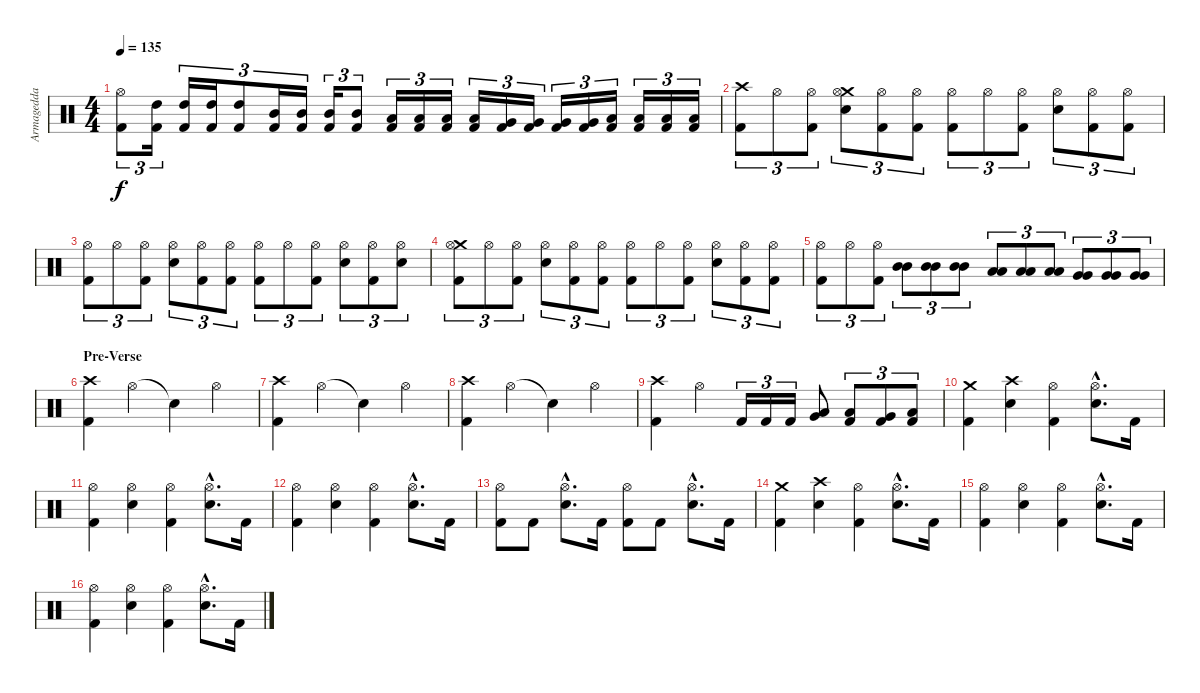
\track ("Armagedda" "Armagedda") {instrument percussion}
\staff {score}
\articulation defaults
\ts (4 4)
\tempo 135
\clef neutral
\ks c
("Hi-Hat (open)" "Kick (hit) 2").8{tu (3 2) dy f} ("High Tom (hit)" "Kick (hit) 2").16{tu (3 2)} ("High Tom (hit)" "Kick (hit) 2").16{tu (3 2)} ("High Tom (hit)" "Kick (hit) 2").16{tu (3 2)} ("High Tom (hit)" "Kick (hit) 2").8{tu (3 2)} ("Mid Tom (hit)" "Kick (hit) 2").16{tu (3 2)} ("Mid Tom (hit)" "Kick (hit) 2").16{tu (3 2)} ("Mid Tom (hit)" "Kick (hit) 2").16{tu (3 2)} ("Mid Tom (hit)" "Kick (hit) 2").8{tu (3 2)} ("Low Tom (hit)" "Kick (hit) 2").16{tu (3 2)} ("Low Tom (hit)" "Kick (hit) 2").16{tu (3 2)} ("Low Tom (hit)" "Kick (hit) 2").16{tu (3 2)} ("Low Tom (hit)" "Kick (hit) 2").16{tu (3 2)} ("Very Low Tom (hit)" "Kick (hit) 2").16{tu (3 2)} ("Very Low Tom (hit)" "Kick (hit) 2").16{tu (3 2)} ("Very Low Tom (hit)" "Kick (hit) 2").16{tu (3 2)} ("Very Low Tom (hit)" "Kick (hit) 2").16{tu (3 2)} ("Low Floor Tom (hit)" "Kick (hit) 2").16{tu (3 2)} ("Low Floor Tom (hit)" "Kick (hit) 2").16{tu (3 2)} ("Low Floor Tom (hit)" "Kick (hit) 2").16{tu (3 2)} ("Low Floor Tom (hit)" "Kick (hit) 2").16{tu (3 2)} |
("Crash high (hit)" "Kick (hit) 2").8{tu (3 2)} "Hi-Hat (open)".8{tu (3 2)} ("Hi-Hat (open)" "Kick (hit) 2").8{tu (3 2)} ("Crash medium (hit)" "Hi-Hat (open)" "Electric Snare (hit)").8{tu (3 2)} ("Hi-Hat (open)" "Kick (hit) 2").8{tu (3 2)} ("Hi-Hat (open)" "Kick (hit) 2").8{tu (3 2)} ("Hi-Hat (open)" "Kick (hit) 2").8{tu (3 2)} "Hi-Hat (open)".8{tu (3 2)} ("Hi-Hat (open)" "Kick (hit) 2").8{tu (3 2)} ("Hi-Hat (open)" "Electric Snare (hit)").8{tu (3 2)} ("Hi-Hat (open)" "Kick (hit) 2").8{tu (3 2)} ("Hi-Hat (open)" "Kick (hit) 2").8{tu (3 2)} |
("Hi-Hat (open)" "Kick (hit) 2").8{tu (3 2)} "Hi-Hat (open)".8{tu (3 2)} ("Hi-Hat (open)" "Kick (hit) 2").8{tu (3 2)} ("Hi-Hat (open)" "Electric Snare (hit)").8{tu (3 2)} ("Hi-Hat (open)" "Kick (hit) 2").8{tu (3 2)} ("Hi-Hat (open)" "Kick (hit) 2").8{tu (3 2)} ("Hi-Hat (open)" "Kick (hit) 2").8{tu (3 2)} "Hi-Hat (open)".8{tu (3 2)} ("Hi-Hat (open)" "Kick (hit) 2").8{tu (3 2)} ("Hi-Hat (open)" "Electric Snare (hit)").8{tu (3 2)} ("Hi-Hat (open)" "Kick (hit) 2").8{tu (3 2)} ("Hi-Hat (open)" "Electric Snare (hit)").8{tu (3 2)} |
("Crash medium (hit)" "Hi-Hat (open)" "Kick (hit) 2").8{tu (3 2)} "Hi-Hat (open)".8{tu (3 2)} ("Hi-Hat (open)" "Kick (hit) 2").8{tu (3 2)} ("Hi-Hat (open)" "Electric Snare (hit)").8{tu (3 2)} ("Hi-Hat (open)" "Kick (hit) 2").8{tu (3 2)} ("Hi-Hat (open)" "Kick (hit) 2").8{tu (3 2)} ("Hi-Hat (open)" "Kick (hit) 2").8{tu (3 2)} "Hi-Hat (open)".8{tu (3 2)} ("Hi-Hat (open)" "Kick (hit) 2").8{tu (3 2)} ("Hi-Hat (open)" "Electric Snare (hit)").8{tu (3 2)} ("Hi-Hat (open)" "Kick (hit) 2").8{tu (3 2)} ("Hi-Hat (open)" "Kick (hit) 2").8{tu (3 2)} |
("Hi-Hat (open)" "Kick (hit) 2").8{tu (3 2)} "Hi-Hat (open)".8{tu (3 2)} ("Hi-Hat (open)" "Kick (hit) 2").8{tu (3 2)} ("Mid Tom (hit)" "Mid Tom (hit)").8{tu (3 2)} ("Mid Tom (hit)" "Mid Tom (hit)").8{tu (3 2)} ("Mid Tom (hit)" "Mid Tom (hit)").8{tu (3 2)} ("Low Tom (hit)" "Low Tom (hit)").8{tu (3 2)} ("Low Tom (hit)" "Low Tom (hit)").8{tu (3 2)} ("Low Tom (hit)" "Low Tom (hit)").8{tu (3 2)} ("Very Low Tom (hit)" "Very Low Tom (hit)").8{tu (3 2)} ("Very Low Tom (hit)" "Very Low Tom (hit)").8{tu (3 2)} ("Very Low Tom (hit)" "Very Low Tom (hit)").8{tu (3 2)} |
\section ("" "Pre-Verse")
("Crash high (hit)" "Kick (hit) 2").4 "Hi-Hat (open)".4 "Snare (hit)"{t}.4 "Hi-Hat (open)".4 |
("Crash high (hit)" "Kick (hit) 2").4 "Hi-Hat (open)".4 "Snare (hit)"{t}.4 "Hi-Hat (open)".4 |
("Crash high (hit)" "Kick (hit) 2").4 "Hi-Hat (open)".4 "Snare (hit)"{t}.4 "Hi-Hat (open)".4 |
("Crash high (hit)" "Kick (hit) 2").4 "Hi-Hat (open)".4 "Kick (hit) 2".16{tu (3 2)} "Kick (hit) 2".16{tu (3 2)} "Kick (hit) 2".16{tu (3 2)} ("Low Tom (hit)" "Very Low Tom (hit)").8 ("Low Tom (hit)" "Kick (hit) 2").8{tu (3 2)} ("Very Low Tom (hit)" "Kick (hit) 2").8{tu (3 2)} ("Low Floor Tom (hit)" "Kick (hit) 2").8{tu (3 2)} |
("Crash medium (hit)" "Kick (hit) 2").4 ("Crash high (hit)" "Electric Snare (hit)").4 ("Hi-Hat (open)" "Kick (hit) 2").4 ("Hi-Hat (open)"{hac} "Electric Snare (hit)"{hac}).8{d} "Kick (hit) 2".16 |
("Hi-Hat (open)" "Kick (hit) 2").4 ("Hi-Hat (open)" "Electric Snare (hit)").4 ("Hi-Hat (open)" "Kick (hit) 2").4 ("Hi-Hat (open)"{hac} "Electric Snare (hit)"{hac}).8{d} "Kick (hit) 2".16 |
("Hi-Hat (open)" "Kick (hit) 2").4 ("Hi-Hat (open)" "Electric Snare (hit)").4 ("Hi-Hat (open)" "Kick (hit) 2").4 ("Hi-Hat (open)"{hac} "Electric Snare (hit)"{hac}).8{d} "Kick (hit) 2".16 |
("Hi-Hat (open)" "Kick (hit) 2").8 "Kick (hit) 2".8 ("Hi-Hat (open)"{hac} "Electric Snare (hit)"{hac}).8{d} "Kick (hit) 2".16 ("Hi-Hat (open)" "Kick (hit) 2").8 "Kick (hit) 2".8 ("Hi-Hat (open)"{hac} "Electric Snare (hit)"{hac}).8{d} "Kick (hit) 2".16 |
("Crash medium (hit)" "Kick (hit) 2").4 ("Crash high (hit)" "Electric Snare (hit)").4 ("Hi-Hat (open)" "Kick (hit) 2").4 ("Hi-Hat (open)"{hac} "Electric Snare (hit)"{hac}).8{d} "Kick (hit) 2".16 |
("Hi-Hat (open)" "Kick (hit) 2").4 ("Hi-Hat (open)" "Electric Snare (hit)").4 ("Hi-Hat (open)" "Kick (hit) 2").4 ("Hi-Hat (open)"{hac} "Electric Snare (hit)"{hac}).8{d} "Kick (hit) 2".16 |
("Hi-Hat (open)" "Kick (hit) 2").4 ("Hi-Hat (open)" "Electric Snare (hit)").4 ("Hi-Hat (open)" "Kick (hit) 2").4 ("Hi-Hat (open)"{hac} "Electric Snare (hit)"{hac}).8{d} "Kick (hit) 2".16
